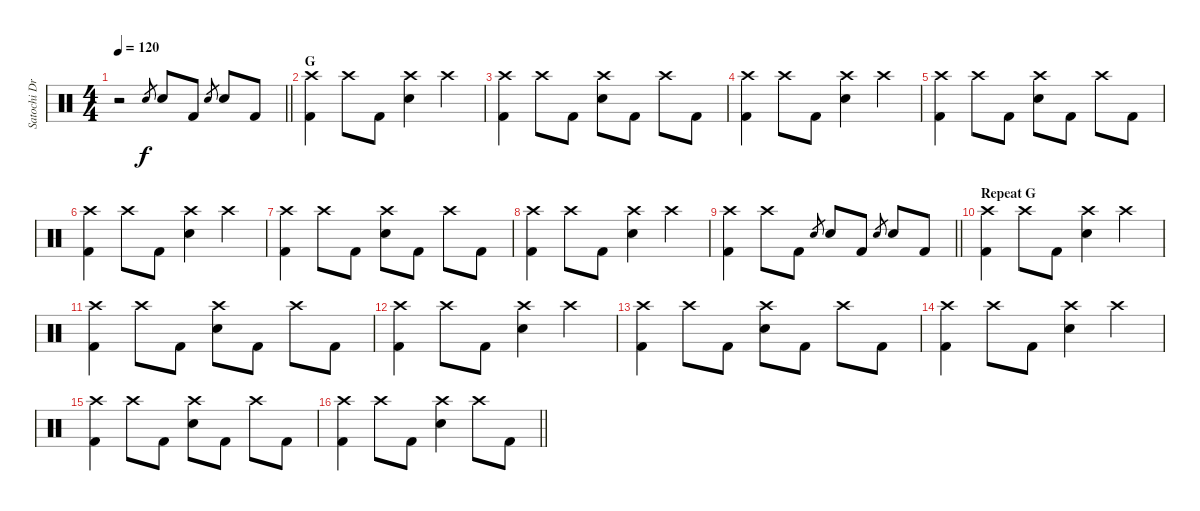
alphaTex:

\track ("Satochi Drums" "Satochi Dr") {instrument percussion}
\staff {score}
\articulation defaults
\ts (4 4)
\tempo 120
\clef neutral
\barLineRight lightlight
\ks c
r.2{dy f} "Snare (hit) 2".8{gr} "Snare (hit) 2".8 "Kick (hit) 2".8 "Snare (hit) 2".8{gr} "Snare (hit) 2".8 "Kick (hit) 2".8 |
\section ("" "G")
("Crash high (hit)" "Kick (hit) 2").4 "Crash high (hit)".8 "Kick (hit) 2".8 ("Crash high (hit)" "Snare (hit) 2").4 "Crash high (hit)".4 |
("Crash high (hit)" "Kick (hit) 2").4 "Crash high (hit)".8 "Kick (hit) 2".8 ("Crash high (hit)" "Snare (hit) 2").8 "Kick (hit) 2".8 "Crash high (hit)".8 "Kick (hit) 2".8 |
("Crash high (hit)" "Kick (hit) 2").4 "Crash high (hit)".8 "Kick (hit) 2".8 ("Crash high (hit)" "Snare (hit) 2").4 "Crash high (hit)".4 |
("Crash high (hit)" "Kick (hit) 2").4 "Crash high (hit)".8 "Kick (hit) 2".8 ("Crash high (hit)" "Snare (hit) 2").8 "Kick (hit) 2".8 "Crash high (hit)".8 "Kick (hit) 2".8 |
("Crash high (hit)" "Kick (hit) 2").4 "Crash high (hit)".8 "Kick (hit) 2".8 ("Crash high (hit)" "Snare (hit) 2").4 "Crash high (hit)".4 |
("Crash high (hit)" "Kick (hit) 2").4 "Crash high (hit)".8 "Kick (hit) 2".8 ("Crash high (hit)" "Snare (hit) 2").8 "Kick (hit) 2".8 "Crash high (hit)".8 "Kick (hit) 2".8 |
("Crash high (hit)" "Kick (hit) 2").4 "Crash high (hit)".8 "Kick (hit) 2".8 ("Crash high (hit)" "Snare (hit) 2").4 "Crash high (hit)".4 |
\barLineRight lightlight
("Crash high (hit)" "Kick (hit) 2").4 "Crash high (hit)".8 "Kick (hit) 2".8 "Snare (hit) 2".8{gr} "Snare (hit) 2".8 "Kick (hit) 2".8 "Snare (hit) 2".8{gr} "Snare (hit) 2".8 "Kick (hit) 2".8 |
\section ("" "Repeat G")
("Crash high (hit)" "Kick (hit) 2").4 "Crash high (hit)".8 "Kick (hit) 2".8 ("Crash high (hit)" "Snare (hit) 2").4 "Crash high (hit)".4 |
("Crash high (hit)" "Kick (hit) 2").4 "Crash high (hit)".8 "Kick (hit) 2".8 ("Crash high (hit)" "Snare (hit) 2").8 "Kick (hit) 2".8 "Crash high (hit)".8 "Kick (hit) 2".8 |
("Crash high (hit)" "Kick (hit) 2").4 "Crash high (hit)".8 "Kick (hit) 2".8 ("Crash high (hit)" "Snare (hit) 2").4 "Crash high (hit)".4 |
("Crash high (hit)" "Kick (hit) 2").4 "Crash high (hit)".8 "Kick (hit) 2".8 ("Crash high (hit)" "Snare (hit) 2").8 "Kick (hit) 2".8 "Crash high (hit)".8 "Kick (hit) 2".8 |
("Crash high (hit)" "Kick (hit) 2").4 "Crash high (hit)".8 "Kick (hit) 2".8 ("Crash high (hit)" "Snare (hit) 2").4 "Crash high (hit)".4 |
("Crash high (hit)" "Kick (hit) 2").4 "Crash high (hit)".8 "Kick (hit) 2".8 ("Crash high (hit)" "Snare (hit) 2").8 "Kick (hit) 2".8 "Crash high (hit)".8 "Kick (hit) 2".8 |
\barLineRight lightlight
("Crash high (hit)" "Kick (hit) 2").4 "Crash high (hit)".8 "Kick (hit) 2".8 ("Crash high (hit)" "Snare (hit) 2").4 "Crash high (hit)".8 "Kick (hit) 2".8
